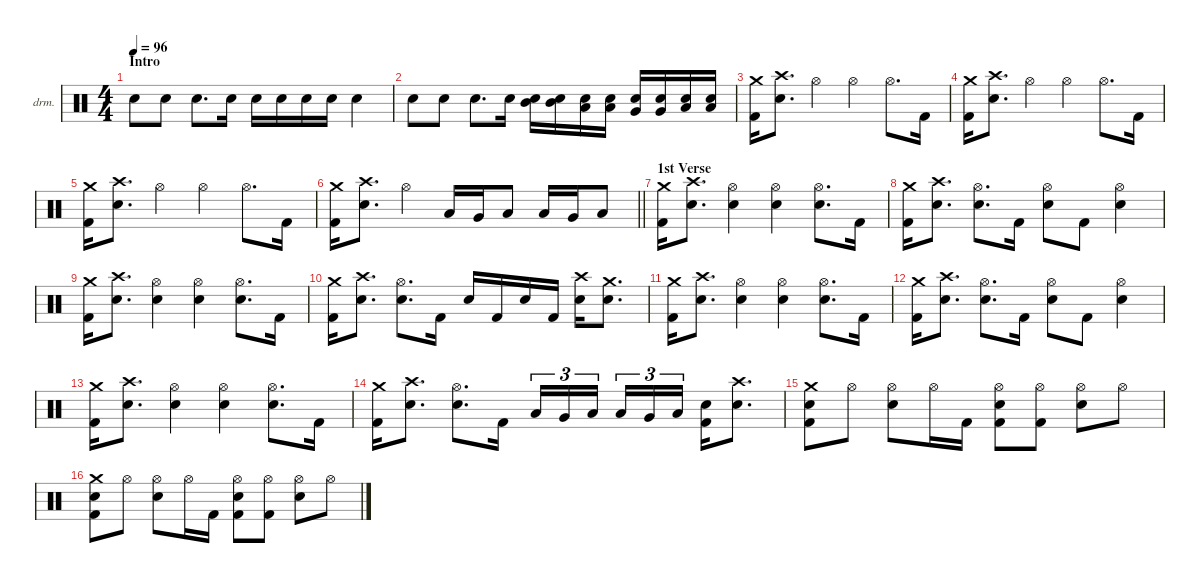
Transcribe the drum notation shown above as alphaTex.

\defaultSystemsLayout 4
\hideDynamics
\bracketExtendMode nobrackets
\firstSystemTrackNameOrientation horizontal
\otherSystemsTrackNameOrientation horizontal
\track ("Percussion" "drm.") {instrument percussion}
\staff {score}
\articulation defaults
\ts (4 4)
\beaming (8 2 2 2 2)
\section ("" "Intro")
\tempo 96
\clef neutral
\ks c "Snare (hit) 2".8{dy pp} "Snare (hit) 2".8 "Snare (hit) 2".8{d dy p} "Snare (hit) 2".16 "Snare (hit) 2".16{dy mp} "Snare (hit) 2".16 "Snare (hit) 2".16{dy mf} "Snare (hit) 2".16 "Snare (hit) 2".4{dy f}
|
"Snare (hit) 2".8 "Snare (hit) 2".8 "Snare (hit) 2".8{d} "Snare (hit) 2".16 ("Snare (hit) 2" "Mid Tom (hit)").16 ("Snare (hit) 2" "Mid Tom (hit)").16 ("Snare (hit) 2" "Low Tom (hit)").16 ("Snare (hit) 2" "Low Tom (hit)").16 ("Snare (hit) 2" "Very Low Tom (hit)").16 ("Snare (hit) 2" "Very Low Tom (hit)").16 ("Snare (hit) 2" "Low Floor Tom (hit)").16 ("Snare (hit) 2" "Low Floor Tom (hit)").16 |
("Crash medium (hit)" "Kick (hit) 2").16 ("Crash high (hit)" "Snare (hit) 2").8{d} "Hi-Hat (open)".4 "Hi-Hat (open)".4 "Hi-Hat (open)".8{d} "Kick (hit) 2".16 |
("Crash medium (hit)" "Kick (hit) 2").16 ("Crash high (hit)" "Snare (hit) 2").8{d} "Hi-Hat (open)".4 "Hi-Hat (open)".4 "Hi-Hat (open)".8{d} "Kick (hit) 2".16 |
("Crash medium (hit)" "Kick (hit) 2").16 ("Crash high (hit)" "Snare (hit) 2").8{d} "Hi-Hat (open)".4 "Hi-Hat (open)".4 "Hi-Hat (open)".8{d} "Kick (hit) 2".16 |
\barLineRight lightlight
("Crash medium (hit)" "Kick (hit) 2").16 ("Crash high (hit)" "Snare (hit) 2").8{d} "Hi-Hat (open)".4 "Low Tom (hit)".16 "Very Low Tom (hit)".16 "Low Floor Tom (hit)".8 "Low Tom (hit)".16 "Very Low Tom (hit)".16 "Low Floor Tom (hit)".8 |
\section ("" "1st Verse")
("Crash medium (hit)" "Kick (hit) 2").16 ("Crash high (hit)" "Snare (hit) 2").8{d} ("Hi-Hat (open)" "Snare (hit) 2").4 ("Hi-Hat (open)" "Snare (hit) 2").4 ("Hi-Hat (open)" "Snare (hit) 2").8{d} "Kick (hit) 2".16 |
("Crash medium (hit)" "Kick (hit) 2").16 ("Crash high (hit)" "Snare (hit) 2").8{d} ("Hi-Hat (open)" "Snare (hit) 2").8{d} "Kick (hit) 2".16 ("Hi-Hat (open)" "Snare (hit) 2").8 "Kick (hit) 2".8 ("Hi-Hat (open)" "Snare (hit) 2").4 |
("Crash medium (hit)" "Kick (hit) 2").16 ("Crash high (hit)" "Snare (hit) 2").8{d} ("Hi-Hat (open)" "Snare (hit) 2").4 ("Hi-Hat (open)" "Snare (hit) 2").4 ("Hi-Hat (open)" "Snare (hit) 2").8{d} "Kick (hit) 2".16 |
("Crash medium (hit)" "Kick (hit) 2").16 ("Crash high (hit)" "Snare (hit) 2").8{d} ("Hi-Hat (open)" "Snare (hit) 2").8{d} "Kick (hit) 2".16 "Snare (hit) 2".16 "Kick (hit) 2".16 "Snare (hit) 2".16 "Kick (hit) 2".16 ("Crash high (hit)" "Snare (hit) 2").16 ("Crash medium (hit)" "Snare (hit) 2").8{d} |
("Crash medium (hit)" "Kick (hit) 2").16 ("Crash high (hit)" "Snare (hit) 2").8{d} ("Hi-Hat (open)" "Snare (hit) 2").4 ("Hi-Hat (open)" "Snare (hit) 2").4 ("Hi-Hat (open)" "Snare (hit) 2").8{d} "Kick (hit) 2".16 |
("Crash medium (hit)" "Kick (hit) 2").16 ("Crash high (hit)" "Snare (hit) 2").8{d} ("Hi-Hat (open)" "Snare (hit) 2").8{d} "Kick (hit) 2".16 ("Hi-Hat (open)" "Snare (hit) 2").8 "Kick (hit) 2".8 ("Hi-Hat (open)" "Snare (hit) 2").4 |
("Crash medium (hit)" "Kick (hit) 2").16 ("Crash high (hit)" "Snare (hit) 2").8{d} ("Hi-Hat (open)" "Snare (hit) 2").4 ("Hi-Hat (open)" "Snare (hit) 2").4 ("Hi-Hat (open)" "Snare (hit) 2").8{d} "Kick (hit) 2".16 |
("Crash medium (hit)" "Kick (hit) 2").16 ("Crash high (hit)" "Snare (hit) 2").8{d} ("Hi-Hat (open)" "Snare (hit) 2").8{d} "Kick (hit) 2".16 "Low Tom (hit)".16{tu (3 2)} "Very Low Tom (hit)".16{tu (3 2)} "Low Floor Tom (hit)".16{tu (3 2)} "Low Tom (hit)".16{tu (3 2)} "Very Low Tom (hit)".16{tu (3 2)} "Low Floor Tom (hit)".16{tu (3 2)} ("Snare (hit) 2" "Kick (hit) 2").16 ("Crash high (hit)" "Snare (hit) 2").8{d} |
("Crash medium (hit)" "Snare (hit) 2" "Kick (hit) 2").8 "Hi-Hat (open)".8 ("Hi-Hat (open)" "Snare (hit) 2").8 "Hi-Hat (open)".16 "Kick (hit) 2".16 ("Hi-Hat (open)" "Snare (hit) 2" "Kick (hit) 2").8 ("Hi-Hat (open)" "Kick (hit) 2").8 ("Hi-Hat (open)" "Snare (hit) 2").8 "Hi-Hat (open)".8 |
("Crash medium (hit)" "Snare (hit) 2" "Kick (hit) 2").8 "Hi-Hat (open)".8 ("Hi-Hat (open)" "Snare (hit) 2").8 "Hi-Hat (open)".16 "Kick (hit) 2".16 ("Hi-Hat (open)" "Snare (hit) 2" "Kick (hit) 2").8 ("Hi-Hat (open)" "Kick (hit) 2").8 ("Hi-Hat (open)" "Snare (hit) 2").8 "Hi-Hat (open)".8
